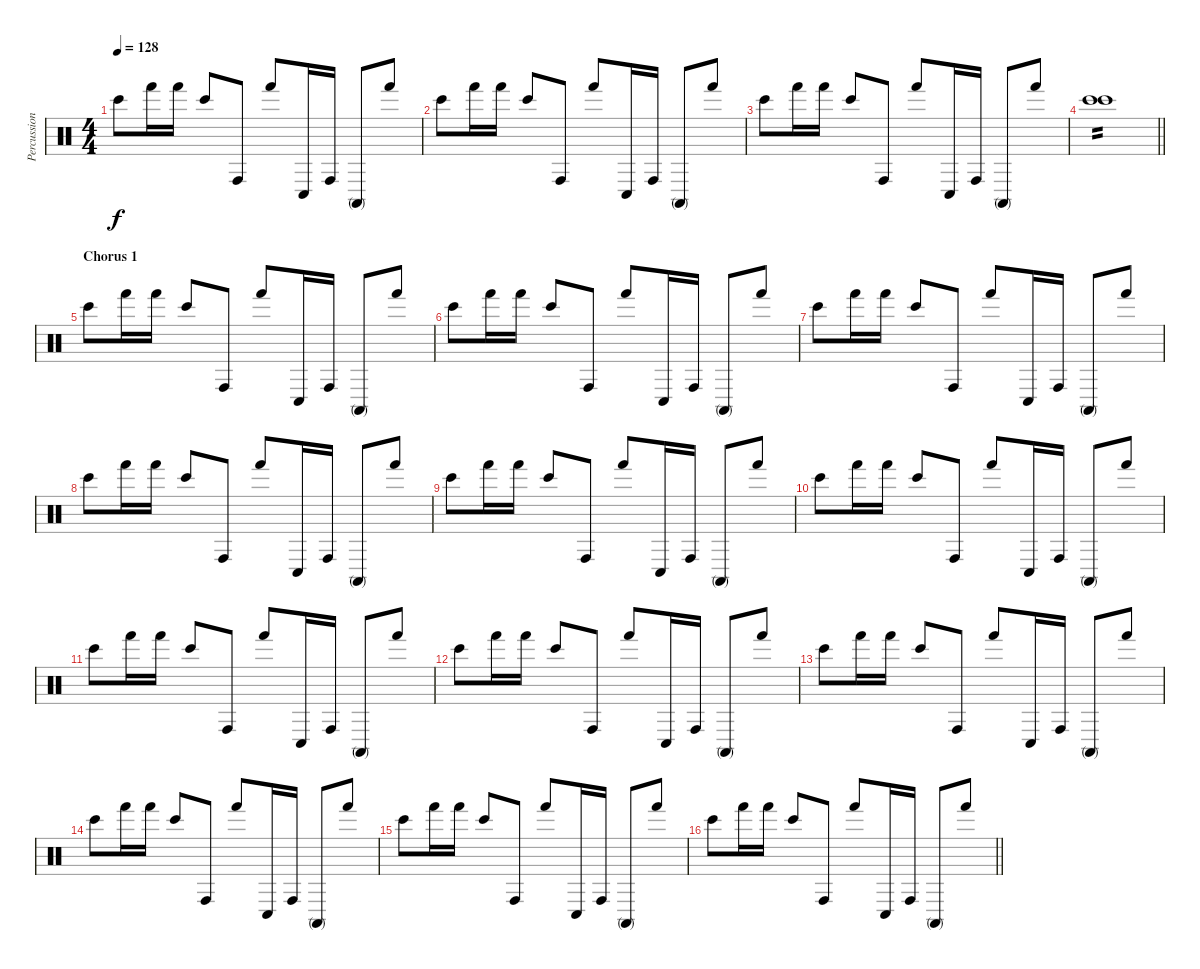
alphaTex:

\track ("Percussioni" "Percussion") {instrument percussion}
\staff {score}
\articulation defaults
\ts (4 4)
\tempo 128
\clef neutral
\ks c "Bongo High (hit)".8{dy f} "Hand (hit)".16 "Hand (hit)".16 "Bongo High (hit)".8 "Conga high (hit)".8 "Hand (hit)".8 "Conga low (hit)".16 "Conga high (hit)".16 "Conga high (mute)".8 "Hand (hit)".8
|
"Bongo High (hit)".8 "Hand (hit)".16 "Hand (hit)".16 "Bongo High (hit)".8 "Conga high (hit)".8 "Hand (hit)".8 "Conga low (hit)".16 "Conga high (hit)".16 "Conga high (mute)".8 "Hand (hit)".8 |
"Bongo High (hit)".8 "Hand (hit)".16 "Hand (hit)".16 "Bongo High (hit)".8 "Conga high (hit)".8 "Hand (hit)".8 "Conga low (hit)".16 "Conga high (hit)".16 "Conga high (mute)".8 "Hand (hit)".8 |
\barLineRight lightlight
("Bongo High (hit)" "Bongo High (hit)").1{tp 2} |
\section ("" "Chorus 1")
"Bongo High (hit)".8 "Hand (hit)".16 "Hand (hit)".16 "Bongo High (hit)".8 "Conga high (hit)".8 "Hand (hit)".8 "Conga low (hit)".16 "Conga high (hit)".16 "Conga high (mute)".8 "Hand (hit)".8 |
"Bongo High (hit)".8 "Hand (hit)".16 "Hand (hit)".16 "Bongo High (hit)".8 "Conga high (hit)".8 "Hand (hit)".8 "Conga low (hit)".16 "Conga high (hit)".16 "Conga high (mute)".8 "Hand (hit)".8 |
"Bongo High (hit)".8 "Hand (hit)".16 "Hand (hit)".16 "Bongo High (hit)".8 "Conga high (hit)".8 "Hand (hit)".8 "Conga low (hit)".16 "Conga high (hit)".16 "Conga high (mute)".8 "Hand (hit)".8 |
"Bongo High (hit)".8 "Hand (hit)".16 "Hand (hit)".16 "Bongo High (hit)".8 "Conga high (hit)".8 "Hand (hit)".8 "Conga low (hit)".16 "Conga high (hit)".16 "Conga high (mute)".8 "Hand (hit)".8 |
"Bongo High (hit)".8 "Hand (hit)".16 "Hand (hit)".16 "Bongo High (hit)".8 "Conga high (hit)".8 "Hand (hit)".8 "Conga low (hit)".16 "Conga high (hit)".16 "Conga high (mute)".8 "Hand (hit)".8 |
"Bongo High (hit)".8 "Hand (hit)".16 "Hand (hit)".16 "Bongo High (hit)".8 "Conga high (hit)".8 "Hand (hit)".8 "Conga low (hit)".16 "Conga high (hit)".16 "Conga high (mute)".8 "Hand (hit)".8 |
"Bongo High (hit)".8 "Hand (hit)".16 "Hand (hit)".16 "Bongo High (hit)".8 "Conga high (hit)".8 "Hand (hit)".8 "Conga low (hit)".16 "Conga high (hit)".16 "Conga high (mute)".8 "Hand (hit)".8 |
"Bongo High (hit)".8 "Hand (hit)".16 "Hand (hit)".16 "Bongo High (hit)".8 "Conga high (hit)".8 "Hand (hit)".8 "Conga low (hit)".16 "Conga high (hit)".16 "Conga high (mute)".8 "Hand (hit)".8 |
"Bongo High (hit)".8 "Hand (hit)".16 "Hand (hit)".16 "Bongo High (hit)".8 "Conga high (hit)".8 "Hand (hit)".8 "Conga low (hit)".16 "Conga high (hit)".16 "Conga high (mute)".8 "Hand (hit)".8 |
"Bongo High (hit)".8 "Hand (hit)".16 "Hand (hit)".16 "Bongo High (hit)".8 "Conga high (hit)".8 "Hand (hit)".8 "Conga low (hit)".16 "Conga high (hit)".16 "Conga high (mute)".8 "Hand (hit)".8 |
"Bongo High (hit)".8 "Hand (hit)".16 "Hand (hit)".16 "Bongo High (hit)".8 "Conga high (hit)".8 "Hand (hit)".8 "Conga low (hit)".16 "Conga high (hit)".16 "Conga high (mute)".8 "Hand (hit)".8 |
\barLineRight lightlight "Bongo High (hit)".8 "Hand (hit)".16 "Hand (hit)".16 "Bongo High (hit)".8 "Conga high (hit)".8 "Hand (hit)".8 "Conga low (hit)".16 "Conga high (hit)".16 "Conga high (mute)".8 "Hand (hit)".8
